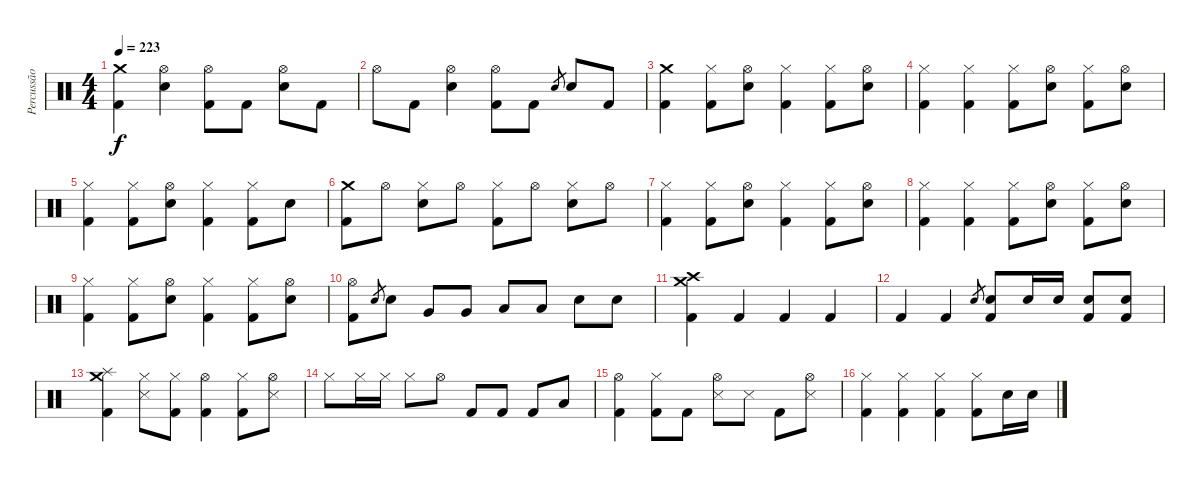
\track ("Percussão" "Percussão") {instrument percussion}
\staff {score}
\articulation defaults
\ts (4 4)
\tempo 223
\clef neutral
\ks c
("Crash medium (hit)" "Kick (hit) 2").4{dy f} ("Hi-Hat (open)" "Snare (hit) 2").4 ("Hi-Hat (open)" "Kick (hit) 2").8 "Kick (hit) 2".8 ("Hi-Hat (open)" "Snare (hit) 2").8 "Kick (hit) 2".8 |
"Hi-Hat (open)".8 "Kick (hit) 2".8 ("Hi-Hat (open)" "Snare (hit) 2").4 ("Hi-Hat (open)" "Kick (hit) 2").8 "Kick (hit) 2".8 "Snare (hit) 2".8{gr} "Snare (hit) 2".8 "Kick (hit) 2".8 |
("Crash medium (hit)" "Kick (hit) 2").4 ("Hi-Hat (closed)" "Kick (hit) 2").8 ("Hi-Hat (open)" "Snare (hit) 2").8 ("Hi-Hat (closed)" "Kick (hit) 2").4 ("Hi-Hat (closed)" "Kick (hit) 2").8 ("Hi-Hat (open)" "Snare (hit) 2").8 |
("Hi-Hat (closed)" "Kick (hit) 2").4 ("Hi-Hat (closed)" "Kick (hit) 2").4 ("Hi-Hat (closed)" "Kick (hit) 2").8 ("Hi-Hat (open)" "Snare (hit) 2").8 ("Hi-Hat (closed)" "Kick (hit) 2").8 ("Hi-Hat (open)" "Snare (hit) 2").8 |
("Hi-Hat (closed)" "Kick (hit) 2").4 ("Hi-Hat (closed)" "Kick (hit) 2").8 ("Hi-Hat (open)" "Snare (hit) 2").8 ("Hi-Hat (closed)" "Kick (hit) 2").4 ("Hi-Hat (closed)" "Kick (hit) 2").8 "Snare (hit) 2".8 |
("Crash medium (hit)" "Kick (hit) 2").8 "Hi-Hat (open)".8 ("Hi-Hat (closed)" "Snare (hit) 2").8 "Hi-Hat (open)".8 ("Hi-Hat (closed)" "Kick (hit) 2").8 "Hi-Hat (open)".8 ("Hi-Hat (closed)" "Snare (hit) 2").8 "Hi-Hat (open)".8 |
("Hi-Hat (closed)" "Kick (hit) 2").4 ("Hi-Hat (closed)" "Kick (hit) 2").8 ("Hi-Hat (open)" "Snare (hit) 2").8 ("Hi-Hat (closed)" "Kick (hit) 2").4 ("Hi-Hat (closed)" "Kick (hit) 2").8 ("Hi-Hat (open)" "Snare (hit) 2").8 |
("Hi-Hat (closed)" "Kick (hit) 2").4 ("Hi-Hat (closed)" "Kick (hit) 2").4 ("Hi-Hat (closed)" "Kick (hit) 2").8 ("Hi-Hat (open)" "Snare (hit) 2").8 ("Hi-Hat (closed)" "Kick (hit) 2").8 ("Hi-Hat (open)" "Snare (hit) 2").8 |
("Hi-Hat (closed)" "Kick (hit) 2").4 ("Hi-Hat (closed)" "Kick (hit) 2").8 ("Hi-Hat (open)" "Snare (hit) 2").8 ("Hi-Hat (closed)" "Kick (hit) 2").4 ("Hi-Hat (closed)" "Kick (hit) 2").8 ("Hi-Hat (open)" "Snare (hit) 2").8 |
("Hi-Hat (open)" "Kick (hit) 2").8 "Snare (hit) 2".8{gr} "Snare (hit) 2".8 "Very Low Tom (hit)".8 "Very Low Tom (hit)".8 "Low Floor Tom (hit)".8 "Low Floor Tom (hit)".8 "Snare (hit) 2".8 "Snare (hit) 2".8 |
("Crash medium (hit)" "Kick (hit) 2" "Crash high (hit)").4 "Kick (hit) 2".4 "Kick (hit) 2".4 "Kick (hit) 2".4 |
"Kick (hit) 2".4 "Kick (hit) 2".4 "Snare (hit) 2".8{gr} ("Snare (hit) 2" "Kick (hit) 2").8 "Snare (hit) 2".16 "Snare (hit) 2".16 ("Kick (hit) 2" "Snare (hit) 2").8 ("Snare (hit) 2" "Kick (hit) 2").8 |
("Crash medium (hit)" "Kick (hit) 2" "Splash (hit)").4 ("Hi-Hat (closed)" "Snare (side stick) 3").8 ("Hi-Hat (closed)" "Kick (hit) 2").8 ("Hi-Hat (open)" "Kick (hit) 2").4 ("Hi-Hat (closed)" "Kick (hit) 2").8 ("Hi-Hat (open)" "Snare (side stick) 3").8 |
"Hi-Hat (closed)".8 "Hi-Hat (closed)".16 "Hi-Hat (closed)".16 "Hi-Hat (closed)".8 "Hi-Hat (open)".8 "Kick (hit) 2".8 "Kick (hit) 2".8 "Kick (hit) 2".8 "Low Tom (hit)".8 |
("Hi-Hat (open)" "Kick (hit) 2").4 ("Hi-Hat (closed)" "Kick (hit) 2").8 "Kick (hit) 2".8 ("Hi-Hat (open)" "Snare (side stick) 3").8 "Snare (side stick) 3".8 "Kick (hit) 2".8 ("Hi-Hat (open)" "Snare (side stick) 3").8 |
("Hi-Hat (closed)" "Kick (hit) 2").4 ("Hi-Hat (closed)" "Kick (hit) 2").4 ("Hi-Hat (closed)" "Kick (hit) 2").4 ("Hi-Hat (closed)" "Kick (hit) 2").8 "Snare (hit) 2".16 "Snare (hit) 2".16
